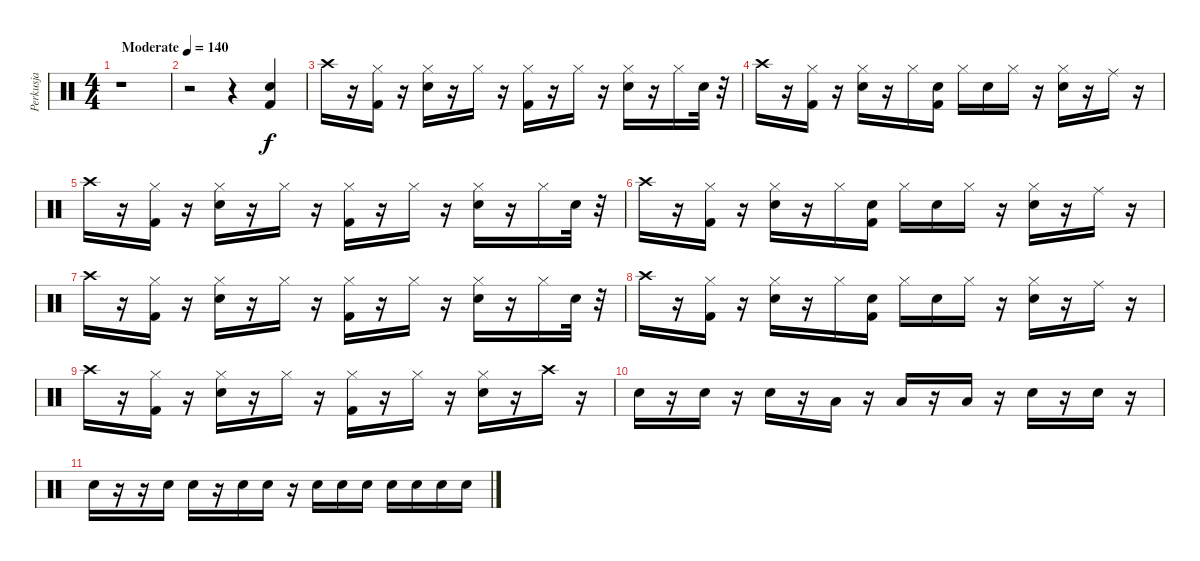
\track ("Perkusja" "Perkusja") {instrument percussion}
\staff {score}
\articulation defaults
\ts (4 4)
\tempo (140 "Moderate")
\clef neutral
\ks c
r.1{dy f} |
r.2 r.4 ("Kick (hit) 2" "Snare (hit) 2").4 |
"Crash high (hit)".16 r.16 ("Hi-Hat (closed)" "Kick (hit) 2").16 r.16 ("Hi-Hat (closed)" "Snare (hit) 2").16 r.16 "Hi-Hat (closed)".16 r.16 ("Hi-Hat (closed)" "Kick (hit) 2").16 r.16 "Hi-Hat (closed)".16 r.16 ("Hi-Hat (closed)" "Snare (hit) 2").16 r.16 "Hi-Hat (closed)".16 "Snare (hit) 2".32 r.32 |
"Crash high (hit)".16 r.16 ("Hi-Hat (closed)" "Kick (hit) 2").16 r.16 ("Hi-Hat (closed)" "Snare (hit) 2").16 r.16 "Hi-Hat (closed)".16 ("Snare (hit) 2" "Kick (hit) 2").16 "Hi-Hat (closed)".16 "Snare (hit) 2".16 "Hi-Hat (closed)".16 r.16 ("Hi-Hat (closed)" "Snare (hit) 2").16 r.16 "Ride (middle)".16 r.16 |
"Crash high (hit)".16 r.16 ("Hi-Hat (closed)" "Kick (hit) 2").16 r.16 ("Hi-Hat (closed)" "Snare (hit) 2").16 r.16 "Hi-Hat (closed)".16 r.16 ("Hi-Hat (closed)" "Kick (hit) 2").16 r.16 "Hi-Hat (closed)".16 r.16 ("Hi-Hat (closed)" "Snare (hit) 2").16 r.16 "Hi-Hat (closed)".16 "Snare (hit) 2".32 r.32 |
"Crash high (hit)".16 r.16 ("Hi-Hat (closed)" "Kick (hit) 2").16 r.16 ("Hi-Hat (closed)" "Snare (hit) 2").16 r.16 "Hi-Hat (closed)".16 ("Snare (hit) 2" "Kick (hit) 2").16 "Hi-Hat (closed)".16 "Snare (hit) 2".16 "Hi-Hat (closed)".16 r.16 ("Hi-Hat (closed)" "Snare (hit) 2").16 r.16 "Ride (middle)".16 r.16 |
"Crash high (hit)".16 r.16 ("Hi-Hat (closed)" "Kick (hit) 2").16 r.16 ("Hi-Hat (closed)" "Snare (hit) 2").16 r.16 "Hi-Hat (closed)".16 r.16 ("Hi-Hat (closed)" "Kick (hit) 2").16 r.16 "Hi-Hat (closed)".16 r.16 ("Hi-Hat (closed)" "Snare (hit) 2").16 r.16 "Hi-Hat (closed)".16 "Snare (hit) 2".32 r.32 |
"Crash high (hit)".16 r.16 ("Hi-Hat (closed)" "Kick (hit) 2").16 r.16 ("Hi-Hat (closed)" "Snare (hit) 2").16 r.16 "Hi-Hat (closed)".16 ("Snare (hit) 2" "Kick (hit) 2").16 "Hi-Hat (closed)".16 "Snare (hit) 2".16 "Hi-Hat (closed)".16 r.16 ("Hi-Hat (closed)" "Snare (hit) 2").16 r.16 "Ride (middle)".16 r.16 |
"Crash high (hit)".16 r.16 ("Hi-Hat (closed)" "Kick (hit) 2").16 r.16 ("Hi-Hat (closed)" "Snare (hit) 2").16 r.16 "Hi-Hat (closed)".16 r.16 ("Hi-Hat (closed)" "Kick (hit) 2").16 r.16 "Hi-Hat (closed)".16 r.16 ("Hi-Hat (closed)" "Snare (hit) 2").16 r.16 "Crash high (hit)".16 r.16 |
"Snare (hit) 2".16 r.16 "Snare (hit) 2".16 r.16 "Snare (hit) 2".16 r.16 "Low Floor Tom (hit)".16 r.16 "Low Floor Tom (hit)".16 r.16 "Low Floor Tom (hit)".16 r.16 "Snare (hit) 2".16 r.16 "Snare (hit) 2".16 r.16 |
"Snare (hit) 2".16 r.16 r.16 "Snare (hit) 2".16 "Snare (hit) 2".16 r.16 "Snare (hit) 2".16 "Snare (hit) 2".16 r.16 "Snare (hit) 2".16 "Snare (hit) 2".16 "Snare (hit) 2".16 "Snare (hit) 2".16 "Snare (hit) 2".16 "Snare (hit) 2".16 "Snare (hit) 2".16
